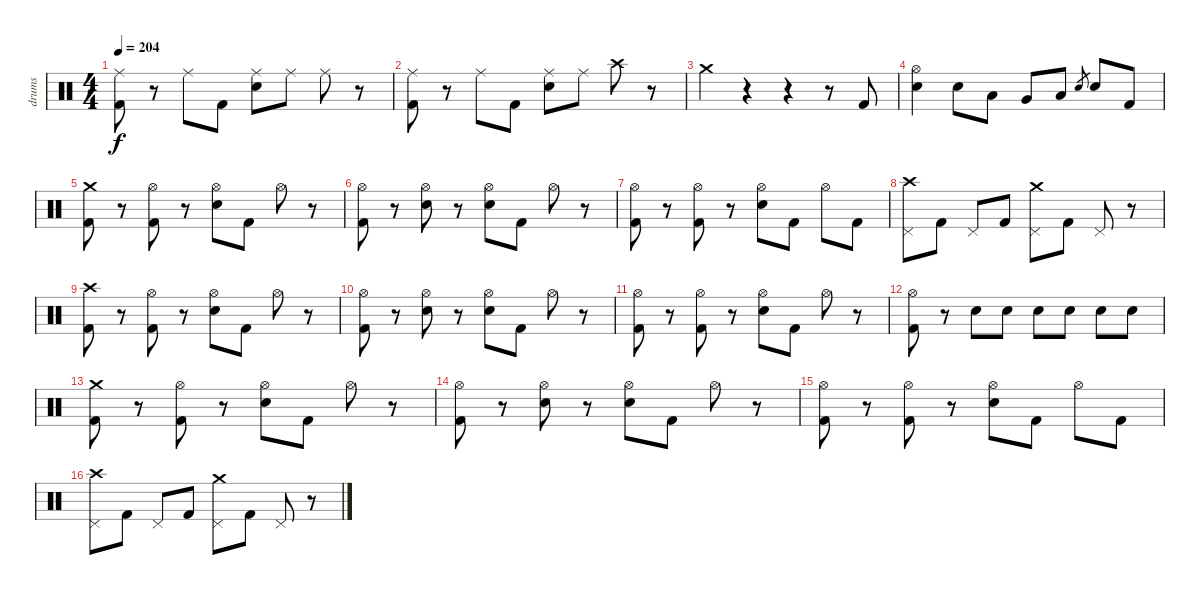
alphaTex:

\track ("drums" "drums") {instrument percussion}
\staff {score}
\articulation defaults
\ts (4 4)
\tempo 204
\clef neutral
\ks c
("Ride (middle)" "Kick (hit) 2").8{dy f} r.8 "Ride (middle)".8 "Kick (hit) 2".8 ("Ride (middle)" "Snare (hit) 2").8 "Ride (middle)".8 "Ride (middle)".8 r.8 |
("Ride (middle)" "Kick (hit) 2").8 r.8 "Ride (middle)".8 "Kick (hit) 2".8 ("Ride (middle)" "Snare (hit) 2").8 "Ride (middle)".8 "Crash high (hit)".8 r.8 |
"Crash medium (hit)".4 r.4 r.4 r.8 "Kick (hit) 2".8 |
("Hi-Hat (open)" "Snare (hit) 2").4 "Snare (hit) 2".8 "Low Tom (hit)".8 "Very Low Tom (hit)".8 "Low Floor Tom (hit)".8 "Snare (hit) 2".8{gr} "Snare (hit) 2".8 "Kick (hit) 2".8 |
("Crash medium (hit)" "Kick (hit) 2").8 r.8 ("Hi-Hat (open)" "Kick (hit) 2").8 r.8 ("Hi-Hat (open)" "Snare (hit) 2").8 "Kick (hit) 2".8 "Hi-Hat (open)".8 r.8 |
("Hi-Hat (open)" "Kick (hit) 2").8 r.8 ("Hi-Hat (open)" "Snare (hit) 2").8 r.8 ("Hi-Hat (open)" "Snare (hit) 2").8 "Kick (hit) 2".8 "Hi-Hat (open)".8 r.8 |
("Hi-Hat (open)" "Kick (hit) 2").8 r.8 ("Hi-Hat (open)" "Kick (hit) 2").8 r.8 ("Hi-Hat (open)" "Snare (hit) 2").8 "Kick (hit) 2".8 "Hi-Hat (open)".8 "Kick (hit) 2".8 |
("Crash high (hit)" "Pedal Hi-Hat (hit)").8 "Kick (hit) 2".8 "Pedal Hi-Hat (hit)".8 "Kick (hit) 2".8 ("Crash medium (hit)" "Pedal Hi-Hat (hit)").8 "Kick (hit) 2".8 "Pedal Hi-Hat (hit)".8 r.8 |
("Crash high (hit)" "Kick (hit) 2").8 r.8 ("Hi-Hat (open)" "Kick (hit) 2").8 r.8 ("Hi-Hat (open)" "Snare (hit) 2").8 "Kick (hit) 2".8 "Hi-Hat (open)".8 r.8 |
("Hi-Hat (open)" "Kick (hit) 2").8 r.8 ("Hi-Hat (open)" "Snare (hit) 2").8 r.8 ("Hi-Hat (open)" "Snare (hit) 2").8 "Kick (hit) 2".8 "Hi-Hat (open)".8 r.8 |
("Hi-Hat (open)" "Kick (hit) 2").8 r.8 ("Hi-Hat (open)" "Kick (hit) 2").8 r.8 ("Hi-Hat (open)" "Snare (hit) 2").8 "Kick (hit) 2".8 "Hi-Hat (open)".8 r.8 |
("Hi-Hat (open)" "Kick (hit) 2").8 r.8 "Snare (hit) 2".8 "Snare (hit) 2".8 "Snare (hit) 2".8 "Snare (hit) 2".8 "Snare (hit) 2".8 "Snare (hit) 2".8 |
("Crash medium (hit)" "Kick (hit) 2").8 r.8 ("Hi-Hat (open)" "Kick (hit) 2").8 r.8 ("Hi-Hat (open)" "Snare (hit) 2").8 "Kick (hit) 2".8 "Hi-Hat (open)".8 r.8 |
("Hi-Hat (open)" "Kick (hit) 2").8 r.8 ("Hi-Hat (open)" "Snare (hit) 2").8 r.8 ("Hi-Hat (open)" "Snare (hit) 2").8 "Kick (hit) 2".8 "Hi-Hat (open)".8 r.8 |
("Hi-Hat (open)" "Kick (hit) 2").8 r.8 ("Hi-Hat (open)" "Kick (hit) 2").8 r.8 ("Hi-Hat (open)" "Snare (hit) 2").8 "Kick (hit) 2".8 "Hi-Hat (open)".8 "Kick (hit) 2".8 |
("Crash high (hit)" "Pedal Hi-Hat (hit)").8 "Kick (hit) 2".8 "Pedal Hi-Hat (hit)".8 "Kick (hit) 2".8 ("Crash medium (hit)" "Pedal Hi-Hat (hit)").8 "Kick (hit) 2".8 "Pedal Hi-Hat (hit)".8 r.8
